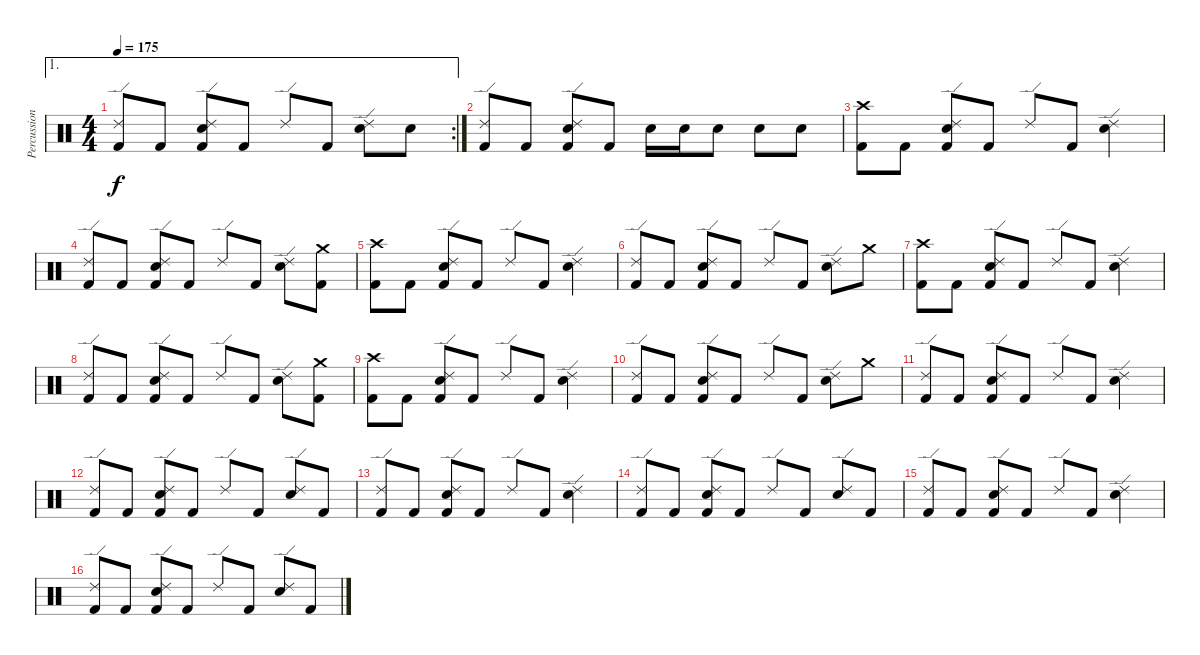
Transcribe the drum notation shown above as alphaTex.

\track ("Percussion" "Percussion") {instrument percussion}
\staff {score}
\articulation defaults
\ae 1
\rc 2
\ts (4 4)
\tempo 175
\clef neutral
\ks c
("Ride (edge) 2" "Kick (hit) 2").8{dy f} "Kick (hit) 2".8 ("Ride (edge) 2" "Snare (hit) 2" "Kick (hit) 2").8 "Kick (hit) 2".8 "Ride (edge) 2".8 "Kick (hit) 2".8 ("Ride (edge) 2" "Snare (hit) 2").8 "Snare (hit) 2".8 |
("Ride (edge) 2" "Kick (hit) 2").8 "Kick (hit) 2".8 ("Ride (edge) 2" "Snare (hit) 2" "Kick (hit) 2").8 "Kick (hit) 2".8 "Snare (hit) 2".16 "Snare (hit) 2".16 "Snare (hit) 2".8 "Snare (hit) 2".8 "Snare (hit) 2".8 |
("Crash high (hit)" "Kick (hit) 2").8 "Kick (hit) 2".8 ("Ride (edge) 2" "Snare (hit) 2" "Kick (hit) 2").8 "Kick (hit) 2".8 "Ride (edge) 2".8 "Kick (hit) 2".8 ("Ride (edge) 2" "Snare (hit) 2").4 |
("Ride (edge) 2" "Kick (hit) 2").8 "Kick (hit) 2".8 ("Ride (edge) 2" "Snare (hit) 2" "Kick (hit) 2").8 "Kick (hit) 2".8 "Ride (edge) 2".8 "Kick (hit) 2".8 ("Ride (edge) 2" "Snare (hit) 2").8 ("Crash medium (hit)" "Kick (hit) 2").8 |
("Crash high (hit)" "Kick (hit) 2").8 "Kick (hit) 2".8 ("Ride (edge) 2" "Snare (hit) 2" "Kick (hit) 2").8 "Kick (hit) 2".8 "Ride (edge) 2".8 "Kick (hit) 2".8 ("Ride (edge) 2" "Snare (hit) 2").4 |
("Ride (edge) 2" "Kick (hit) 2").8 "Kick (hit) 2".8 ("Ride (edge) 2" "Snare (hit) 2" "Kick (hit) 2").8 "Kick (hit) 2".8 "Ride (edge) 2".8 "Kick (hit) 2".8 ("Ride (edge) 2" "Snare (hit) 2").8 "Crash medium (hit)".8 |
("Crash high (hit)" "Kick (hit) 2").8 "Kick (hit) 2".8 ("Ride (edge) 2" "Snare (hit) 2" "Kick (hit) 2").8 "Kick (hit) 2".8 "Ride (edge) 2".8 "Kick (hit) 2".8 ("Ride (edge) 2" "Snare (hit) 2").4 |
("Ride (edge) 2" "Kick (hit) 2").8 "Kick (hit) 2".8 ("Ride (edge) 2" "Snare (hit) 2" "Kick (hit) 2").8 "Kick (hit) 2".8 "Ride (edge) 2".8 "Kick (hit) 2".8 ("Ride (edge) 2" "Snare (hit) 2").8 ("Crash medium (hit)" "Kick (hit) 2").8 |
("Crash high (hit)" "Kick (hit) 2").8 "Kick (hit) 2".8 ("Ride (edge) 2" "Snare (hit) 2" "Kick (hit) 2").8 "Kick (hit) 2".8 "Ride (edge) 2".8 "Kick (hit) 2".8 ("Ride (edge) 2" "Snare (hit) 2").4 |
("Ride (edge) 2" "Kick (hit) 2").8 "Kick (hit) 2".8 ("Ride (edge) 2" "Snare (hit) 2" "Kick (hit) 2").8 "Kick (hit) 2".8 "Ride (edge) 2".8 "Kick (hit) 2".8 ("Ride (edge) 2" "Snare (hit) 2").8 "Crash medium (hit)".8 |
("Ride (edge) 2" "Kick (hit) 2").8 "Kick (hit) 2".8 ("Ride (edge) 2" "Snare (hit) 2" "Kick (hit) 2").8 "Kick (hit) 2".8 "Ride (edge) 2".8 "Kick (hit) 2".8 ("Ride (edge) 2" "Snare (hit) 2").4 |
("Ride (edge) 2" "Kick (hit) 2").8 "Kick (hit) 2".8 ("Ride (edge) 2" "Snare (hit) 2" "Kick (hit) 2").8 "Kick (hit) 2".8 "Ride (edge) 2".8 "Kick (hit) 2".8 ("Ride (edge) 2" "Snare (hit) 2").8 "Kick (hit) 2".8 |
("Ride (edge) 2" "Kick (hit) 2").8 "Kick (hit) 2".8 ("Ride (edge) 2" "Snare (hit) 2" "Kick (hit) 2").8 "Kick (hit) 2".8 "Ride (edge) 2".8 "Kick (hit) 2".8 ("Ride (edge) 2" "Snare (hit) 2").4 |
("Ride (edge) 2" "Kick (hit) 2").8 "Kick (hit) 2".8 ("Ride (edge) 2" "Snare (hit) 2" "Kick (hit) 2").8 "Kick (hit) 2".8 "Ride (edge) 2".8 "Kick (hit) 2".8 ("Ride (edge) 2" "Snare (hit) 2").8 "Kick (hit) 2".8 |
("Ride (edge) 2" "Kick (hit) 2").8 "Kick (hit) 2".8 ("Ride (edge) 2" "Snare (hit) 2" "Kick (hit) 2").8 "Kick (hit) 2".8 "Ride (edge) 2".8 "Kick (hit) 2".8 ("Ride (edge) 2" "Snare (hit) 2").4 |
("Ride (edge) 2" "Kick (hit) 2").8 "Kick (hit) 2".8 ("Ride (edge) 2" "Snare (hit) 2" "Kick (hit) 2").8 "Kick (hit) 2".8 "Ride (edge) 2".8 "Kick (hit) 2".8 ("Ride (edge) 2" "Snare (hit) 2").8 "Kick (hit) 2".8
